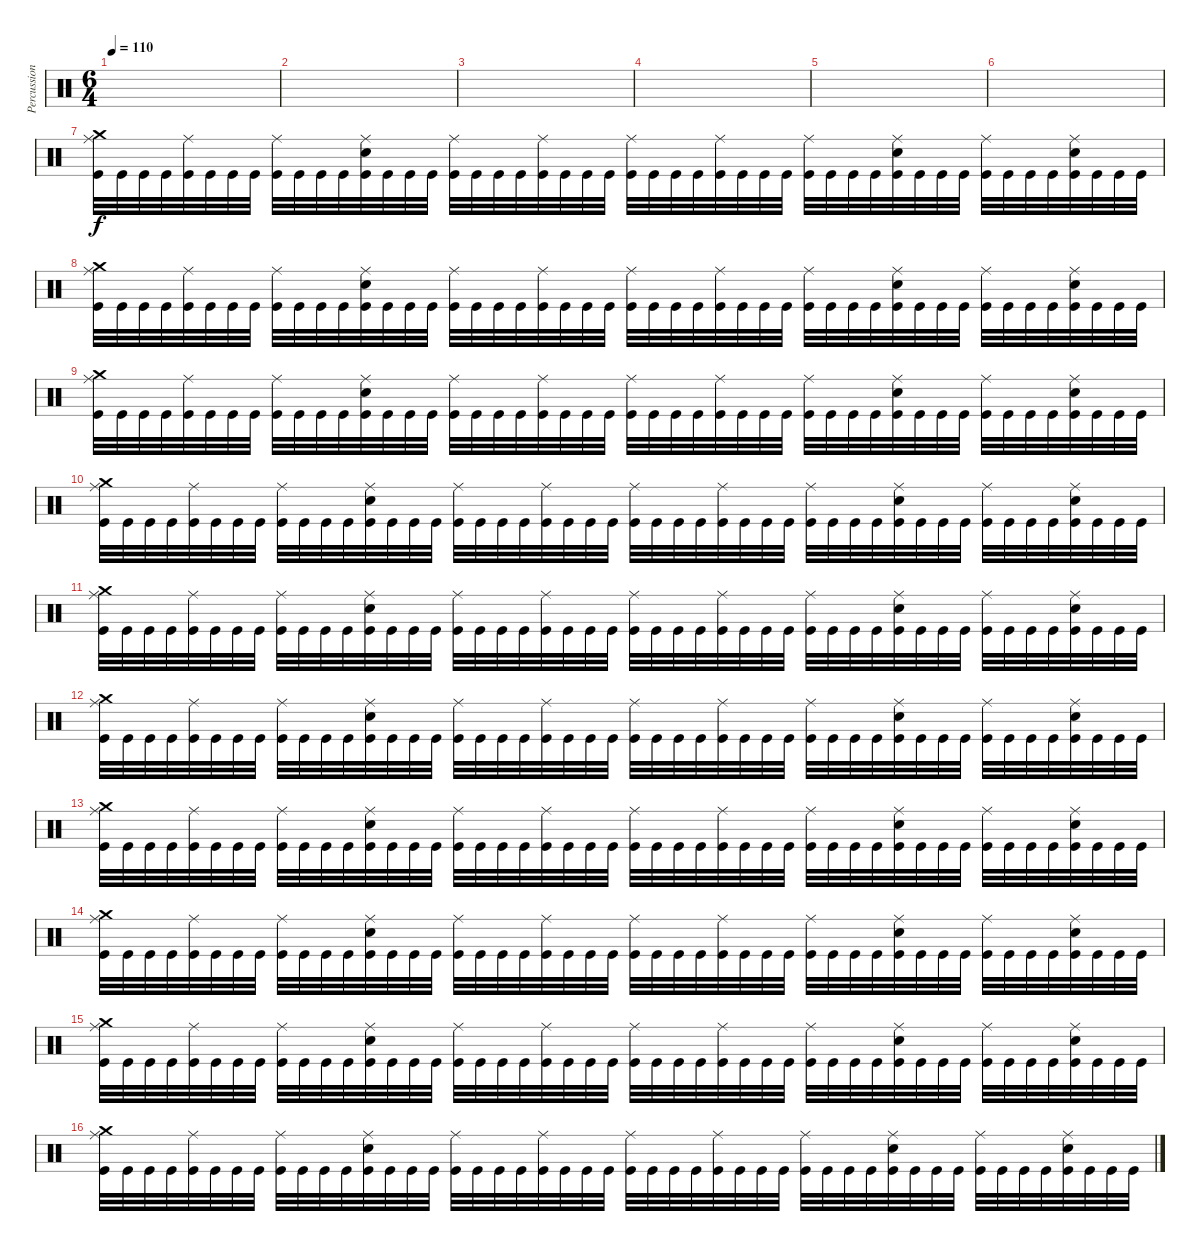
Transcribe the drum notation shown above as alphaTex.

\track ("Percussion" "Percussion") {instrument percussion}
\staff {score}
\articulation defaults
\ts (6 4)
\tempo 110
\clef neutral
\ks c
|
|
|
|
|
|
("Crash medium (hit)" "Ride (middle)" "Kick (hit)").32 "Kick (hit)".32 "Kick (hit)".32 "Kick (hit)".32 ("Ride (middle)" "Kick (hit)").32 "Kick (hit)".32 "Kick (hit)".32 "Kick (hit)".32 ("Ride (middle)" "Kick (hit)").32 "Kick (hit)".32 "Kick (hit)".32 "Kick (hit)".32 ("Ride (middle)" "Electric Snare (hit)" "Kick (hit)").32 "Kick (hit)".32 "Kick (hit)".32 "Kick (hit)".32 ("Ride (middle)" "Kick (hit)").32 "Kick (hit)".32 "Kick (hit)".32 "Kick (hit)".32 ("Ride (middle)" "Kick (hit)").32 "Kick (hit)".32 "Kick (hit)".32 "Kick (hit)".32 ("Ride (middle)" "Kick (hit)").32 "Kick (hit)".32 "Kick (hit)".32 "Kick (hit)".32 ("Ride (middle)" "Kick (hit)").32 "Kick (hit)".32 "Kick (hit)".32 "Kick (hit)".32 ("Ride (middle)" "Kick (hit)").32 "Kick (hit)".32 "Kick (hit)".32 "Kick (hit)".32 ("Ride (middle)" "Electric Snare (hit)" "Kick (hit)").32 "Kick (hit)".32 "Kick (hit)".32 "Kick (hit)".32 ("Ride (middle)" "Kick (hit)").32 "Kick (hit)".32 "Kick (hit)".32 "Kick (hit)".32 ("Ride (middle)" "Electric Snare (hit)" "Kick (hit)").32 "Kick (hit)".32 "Kick (hit)".32 "Kick (hit)".32 |
("Crash medium (hit)" "Ride (middle)" "Kick (hit)").32 "Kick (hit)".32 "Kick (hit)".32 "Kick (hit)".32 ("Ride (middle)" "Kick (hit)").32 "Kick (hit)".32 "Kick (hit)".32 "Kick (hit)".32 ("Ride (middle)" "Kick (hit)").32 "Kick (hit)".32 "Kick (hit)".32 "Kick (hit)".32 ("Ride (middle)" "Electric Snare (hit)" "Kick (hit)").32 "Kick (hit)".32 "Kick (hit)".32 "Kick (hit)".32 ("Ride (middle)" "Kick (hit)").32 "Kick (hit)".32 "Kick (hit)".32 "Kick (hit)".32 ("Ride (middle)" "Kick (hit)").32 "Kick (hit)".32 "Kick (hit)".32 "Kick (hit)".32 ("Ride (middle)" "Kick (hit)").32 "Kick (hit)".32 "Kick (hit)".32 "Kick (hit)".32 ("Ride (middle)" "Kick (hit)").32 "Kick (hit)".32 "Kick (hit)".32 "Kick (hit)".32 ("Ride (middle)" "Kick (hit)").32 "Kick (hit)".32 "Kick (hit)".32 "Kick (hit)".32 ("Ride (middle)" "Electric Snare (hit)" "Kick (hit)").32 "Kick (hit)".32 "Kick (hit)".32 "Kick (hit)".32 ("Ride (middle)" "Kick (hit)").32 "Kick (hit)".32 "Kick (hit)".32 "Kick (hit)".32 ("Ride (middle)" "Electric Snare (hit)" "Kick (hit)").32 "Kick (hit)".32 "Kick (hit)".32 "Kick (hit)".32 |
("Crash medium (hit)" "Ride (middle)" "Kick (hit)").32 "Kick (hit)".32 "Kick (hit)".32 "Kick (hit)".32 ("Ride (middle)" "Kick (hit)").32 "Kick (hit)".32 "Kick (hit)".32 "Kick (hit)".32 ("Ride (middle)" "Kick (hit)").32 "Kick (hit)".32 "Kick (hit)".32 "Kick (hit)".32 ("Ride (middle)" "Electric Snare (hit)" "Kick (hit)").32 "Kick (hit)".32 "Kick (hit)".32 "Kick (hit)".32 ("Ride (middle)" "Kick (hit)").32 "Kick (hit)".32 "Kick (hit)".32 "Kick (hit)".32 ("Ride (middle)" "Kick (hit)").32 "Kick (hit)".32 "Kick (hit)".32 "Kick (hit)".32 ("Ride (middle)" "Kick (hit)").32 "Kick (hit)".32 "Kick (hit)".32 "Kick (hit)".32 ("Ride (middle)" "Kick (hit)").32 "Kick (hit)".32 "Kick (hit)".32 "Kick (hit)".32 ("Ride (middle)" "Kick (hit)").32 "Kick (hit)".32 "Kick (hit)".32 "Kick (hit)".32 ("Ride (middle)" "Electric Snare (hit)" "Kick (hit)").32 "Kick (hit)".32 "Kick (hit)".32 "Kick (hit)".32 ("Ride (middle)" "Kick (hit)").32 "Kick (hit)".32 "Kick (hit)".32 "Kick (hit)".32 ("Ride (middle)" "Electric Snare (hit)" "Kick (hit)").32 "Kick (hit)".32 "Kick (hit)".32 "Kick (hit)".32 |
("Crash medium (hit)" "Ride (middle)" "Kick (hit)").32 "Kick (hit)".32 "Kick (hit)".32 "Kick (hit)".32 ("Ride (middle)" "Kick (hit)").32 "Kick (hit)".32 "Kick (hit)".32 "Kick (hit)".32 ("Ride (middle)" "Kick (hit)").32 "Kick (hit)".32 "Kick (hit)".32 "Kick (hit)".32 ("Ride (middle)" "Electric Snare (hit)" "Kick (hit)").32 "Kick (hit)".32 "Kick (hit)".32 "Kick (hit)".32 ("Ride (middle)" "Kick (hit)").32 "Kick (hit)".32 "Kick (hit)".32 "Kick (hit)".32 ("Ride (middle)" "Kick (hit)").32 "Kick (hit)".32 "Kick (hit)".32 "Kick (hit)".32 ("Ride (middle)" "Kick (hit)").32 "Kick (hit)".32 "Kick (hit)".32 "Kick (hit)".32 ("Ride (middle)" "Kick (hit)").32 "Kick (hit)".32 "Kick (hit)".32 "Kick (hit)".32 ("Ride (middle)" "Kick (hit)").32 "Kick (hit)".32 "Kick (hit)".32 "Kick (hit)".32 ("Ride (middle)" "Electric Snare (hit)" "Kick (hit)").32 "Kick (hit)".32 "Kick (hit)".32 "Kick (hit)".32 ("Ride (middle)" "Kick (hit)").32 "Kick (hit)".32 "Kick (hit)".32 "Kick (hit)".32 ("Ride (middle)" "Electric Snare (hit)" "Kick (hit)").32 "Kick (hit)".32 "Kick (hit)".32 "Kick (hit)".32 |
("Crash medium (hit)" "Ride (middle)" "Kick (hit)").32 "Kick (hit)".32 "Kick (hit)".32 "Kick (hit)".32 ("Ride (middle)" "Kick (hit)").32 "Kick (hit)".32 "Kick (hit)".32 "Kick (hit)".32 ("Ride (middle)" "Kick (hit)").32 "Kick (hit)".32 "Kick (hit)".32 "Kick (hit)".32 ("Ride (middle)" "Electric Snare (hit)" "Kick (hit)").32 "Kick (hit)".32 "Kick (hit)".32 "Kick (hit)".32 ("Ride (middle)" "Kick (hit)").32 "Kick (hit)".32 "Kick (hit)".32 "Kick (hit)".32 ("Ride (middle)" "Kick (hit)").32 "Kick (hit)".32 "Kick (hit)".32 "Kick (hit)".32 ("Ride (middle)" "Kick (hit)").32 "Kick (hit)".32 "Kick (hit)".32 "Kick (hit)".32 ("Ride (middle)" "Kick (hit)").32 "Kick (hit)".32 "Kick (hit)".32 "Kick (hit)".32 ("Ride (middle)" "Kick (hit)").32 "Kick (hit)".32 "Kick (hit)".32 "Kick (hit)".32 ("Ride (middle)" "Electric Snare (hit)" "Kick (hit)").32 "Kick (hit)".32 "Kick (hit)".32 "Kick (hit)".32 ("Ride (middle)" "Kick (hit)").32 "Kick (hit)".32 "Kick (hit)".32 "Kick (hit)".32 ("Ride (middle)" "Electric Snare (hit)" "Kick (hit)").32 "Kick (hit)".32 "Kick (hit)".32 "Kick (hit)".32 |
("Crash medium (hit)" "Ride (middle)" "Kick (hit)").32 "Kick (hit)".32 "Kick (hit)".32 "Kick (hit)".32 ("Ride (middle)" "Kick (hit)").32 "Kick (hit)".32 "Kick (hit)".32 "Kick (hit)".32 ("Ride (middle)" "Kick (hit)").32 "Kick (hit)".32 "Kick (hit)".32 "Kick (hit)".32 ("Ride (middle)" "Electric Snare (hit)" "Kick (hit)").32 "Kick (hit)".32 "Kick (hit)".32 "Kick (hit)".32 ("Ride (middle)" "Kick (hit)").32 "Kick (hit)".32 "Kick (hit)".32 "Kick (hit)".32 ("Ride (middle)" "Kick (hit)").32 "Kick (hit)".32 "Kick (hit)".32 "Kick (hit)".32 ("Ride (middle)" "Kick (hit)").32 "Kick (hit)".32 "Kick (hit)".32 "Kick (hit)".32 ("Ride (middle)" "Kick (hit)").32 "Kick (hit)".32 "Kick (hit)".32 "Kick (hit)".32 ("Ride (middle)" "Kick (hit)").32 "Kick (hit)".32 "Kick (hit)".32 "Kick (hit)".32 ("Ride (middle)" "Electric Snare (hit)" "Kick (hit)").32 "Kick (hit)".32 "Kick (hit)".32 "Kick (hit)".32 ("Ride (middle)" "Kick (hit)").32 "Kick (hit)".32 "Kick (hit)".32 "Kick (hit)".32 ("Ride (middle)" "Electric Snare (hit)" "Kick (hit)").32 "Kick (hit)".32 "Kick (hit)".32 "Kick (hit)".32 |
("Crash medium (hit)" "Ride (middle)" "Kick (hit)").32 "Kick (hit)".32 "Kick (hit)".32 "Kick (hit)".32 ("Ride (middle)" "Kick (hit)").32 "Kick (hit)".32 "Kick (hit)".32 "Kick (hit)".32 ("Ride (middle)" "Kick (hit)").32 "Kick (hit)".32 "Kick (hit)".32 "Kick (hit)".32 ("Ride (middle)" "Electric Snare (hit)" "Kick (hit)").32 "Kick (hit)".32 "Kick (hit)".32 "Kick (hit)".32 ("Ride (middle)" "Kick (hit)").32 "Kick (hit)".32 "Kick (hit)".32 "Kick (hit)".32 ("Ride (middle)" "Kick (hit)").32 "Kick (hit)".32 "Kick (hit)".32 "Kick (hit)".32 ("Ride (middle)" "Kick (hit)").32 "Kick (hit)".32 "Kick (hit)".32 "Kick (hit)".32 ("Ride (middle)" "Kick (hit)").32 "Kick (hit)".32 "Kick (hit)".32 "Kick (hit)".32 ("Ride (middle)" "Kick (hit)").32 "Kick (hit)".32 "Kick (hit)".32 "Kick (hit)".32 ("Ride (middle)" "Electric Snare (hit)" "Kick (hit)").32 "Kick (hit)".32 "Kick (hit)".32 "Kick (hit)".32 ("Ride (middle)" "Kick (hit)").32 "Kick (hit)".32 "Kick (hit)".32 "Kick (hit)".32 ("Ride (middle)" "Electric Snare (hit)" "Kick (hit)").32 "Kick (hit)".32 "Kick (hit)".32 "Kick (hit)".32 |
("Crash medium (hit)" "Ride (middle)" "Kick (hit)").32 "Kick (hit)".32 "Kick (hit)".32 "Kick (hit)".32 ("Ride (middle)" "Kick (hit)").32 "Kick (hit)".32 "Kick (hit)".32 "Kick (hit)".32 ("Ride (middle)" "Kick (hit)").32 "Kick (hit)".32 "Kick (hit)".32 "Kick (hit)".32 ("Ride (middle)" "Electric Snare (hit)" "Kick (hit)").32 "Kick (hit)".32 "Kick (hit)".32 "Kick (hit)".32 ("Ride (middle)" "Kick (hit)").32 "Kick (hit)".32 "Kick (hit)".32 "Kick (hit)".32 ("Ride (middle)" "Kick (hit)").32 "Kick (hit)".32 "Kick (hit)".32 "Kick (hit)".32 ("Ride (middle)" "Kick (hit)").32 "Kick (hit)".32 "Kick (hit)".32 "Kick (hit)".32 ("Ride (middle)" "Kick (hit)").32 "Kick (hit)".32 "Kick (hit)".32 "Kick (hit)".32 ("Ride (middle)" "Kick (hit)").32 "Kick (hit)".32 "Kick (hit)".32 "Kick (hit)".32 ("Ride (middle)" "Electric Snare (hit)" "Kick (hit)").32 "Kick (hit)".32 "Kick (hit)".32 "Kick (hit)".32 ("Ride (middle)" "Kick (hit)").32 "Kick (hit)".32 "Kick (hit)".32 "Kick (hit)".32 ("Ride (middle)" "Electric Snare (hit)" "Kick (hit)").32 "Kick (hit)".32 "Kick (hit)".32 "Kick (hit)".32 |
("Crash medium (hit)" "Ride (middle)" "Kick (hit)").32 "Kick (hit)".32 "Kick (hit)".32 "Kick (hit)".32 ("Ride (middle)" "Kick (hit)").32 "Kick (hit)".32 "Kick (hit)".32 "Kick (hit)".32 ("Ride (middle)" "Kick (hit)").32 "Kick (hit)".32 "Kick (hit)".32 "Kick (hit)".32 ("Ride (middle)" "Electric Snare (hit)" "Kick (hit)").32 "Kick (hit)".32 "Kick (hit)".32 "Kick (hit)".32 ("Ride (middle)" "Kick (hit)").32 "Kick (hit)".32 "Kick (hit)".32 "Kick (hit)".32 ("Ride (middle)" "Kick (hit)").32 "Kick (hit)".32 "Kick (hit)".32 "Kick (hit)".32 ("Ride (middle)" "Kick (hit)").32 "Kick (hit)".32 "Kick (hit)".32 "Kick (hit)".32 ("Ride (middle)" "Kick (hit)").32 "Kick (hit)".32 "Kick (hit)".32 "Kick (hit)".32 ("Ride (middle)" "Kick (hit)").32 "Kick (hit)".32 "Kick (hit)".32 "Kick (hit)".32 ("Ride (middle)" "Electric Snare (hit)" "Kick (hit)").32 "Kick (hit)".32 "Kick (hit)".32 "Kick (hit)".32 ("Ride (middle)" "Kick (hit)").32 "Kick (hit)".32 "Kick (hit)".32 "Kick (hit)".32 ("Ride (middle)" "Electric Snare (hit)" "Kick (hit)").32 "Kick (hit)".32 "Kick (hit)".32 "Kick (hit)".32 |
("Crash medium (hit)" "Ride (middle)" "Kick (hit)").32 "Kick (hit)".32 "Kick (hit)".32 "Kick (hit)".32 ("Ride (middle)" "Kick (hit)").32 "Kick (hit)".32 "Kick (hit)".32 "Kick (hit)".32 ("Ride (middle)" "Kick (hit)").32 "Kick (hit)".32 "Kick (hit)".32 "Kick (hit)".32 ("Ride (middle)" "Electric Snare (hit)" "Kick (hit)").32 "Kick (hit)".32 "Kick (hit)".32 "Kick (hit)".32 ("Ride (middle)" "Kick (hit)").32 "Kick (hit)".32 "Kick (hit)".32 "Kick (hit)".32 ("Ride (middle)" "Kick (hit)").32 "Kick (hit)".32 "Kick (hit)".32 "Kick (hit)".32 ("Ride (middle)" "Kick (hit)").32 "Kick (hit)".32 "Kick (hit)".32 "Kick (hit)".32 ("Ride (middle)" "Kick (hit)").32 "Kick (hit)".32 "Kick (hit)".32 "Kick (hit)".32 ("Ride (middle)" "Kick (hit)").32 "Kick (hit)".32 "Kick (hit)".32 "Kick (hit)".32 ("Ride (middle)" "Electric Snare (hit)" "Kick (hit)").32 "Kick (hit)".32 "Kick (hit)".32 "Kick (hit)".32 ("Ride (middle)" "Kick (hit)").32 "Kick (hit)".32 "Kick (hit)".32 "Kick (hit)".32 ("Ride (middle)" "Electric Snare (hit)" "Kick (hit)").32 "Kick (hit)".32 "Kick (hit)".32 "Kick (hit)".32
